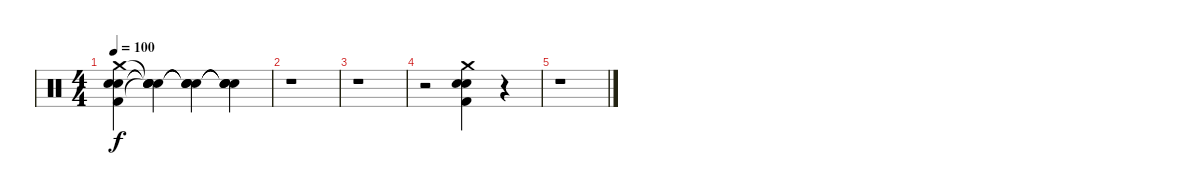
\track "" {instrument percussion}
\staff {score}
\articulation defaults
\ts (4 4)
\tempo 100
\clef neutral
\ks c
("Crash medium (hit)" "Snare (hit) 2" "Electric Snare (hit)" "Kick (hit) 2").4{dy f} ("Snare (hit)"{t} "Snare (hit)"{t} "Snare (hit)"{t} "Snare (hit)"{t}).4 ("Snare (hit)"{t} "Snare (hit)"{t} "Snare (hit)"{t} "Snare (hit)"{t}).4 ("Snare (hit)"{t} "Snare (hit)"{t} "Snare (hit)"{t} "Snare (hit)"{t}).4 |
r.1 |
r.1 |
r.2 ("Crash medium (hit)" "Snare (hit) 2" "Electric Snare (hit)" "Kick (hit) 2").4 r.4 |
r.1
